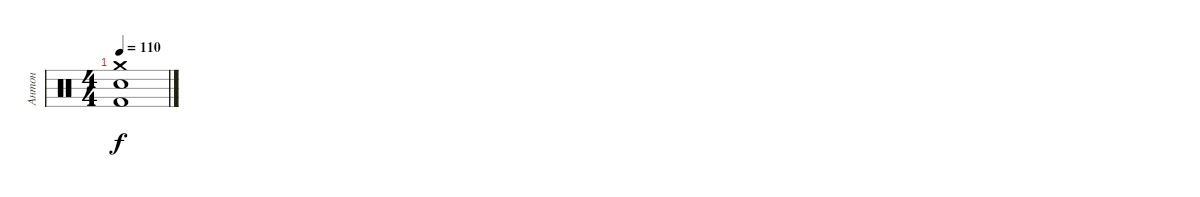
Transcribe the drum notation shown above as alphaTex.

\track ("Антон" "Антон") {instrument percussion}
\staff {score}
\articulation defaults
\ts (4 4)
\tempo 110
\clef neutral
\ks c
("Crash medium (hit)" "Electric Snare (hit)" "Kick (hit) 2").1{dy f}
